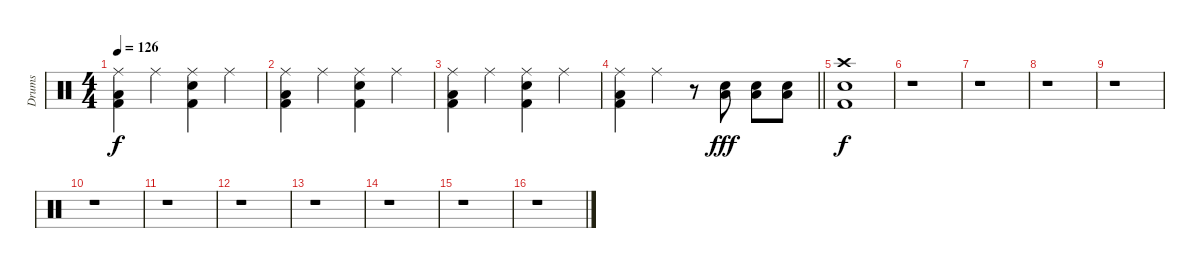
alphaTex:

\track ("Drums" "Drums") {instrument percussion bank 127}
\staff {score}
\articulation defaults
\ts (4 4)
\tempo 126
\clef neutral
\ks c
("Ride (middle)" "Kick (hit) 2" "Low Floor Tom (hit)").4{dy f} "Ride (middle)".4 ("Ride (middle)" "Kick (hit) 2" "Electric Snare (hit)").4 "Ride (middle)".4 |
("Ride (middle)" "Kick (hit) 2" "Low Floor Tom (hit)").4 "Ride (middle)".4 ("Ride (middle)" "Kick (hit) 2" "Electric Snare (hit)").4 "Ride (middle)".4 |
("Ride (middle)" "Kick (hit) 2" "Low Floor Tom (hit)").4 "Ride (middle)".4 ("Ride (middle)" "Kick (hit) 2" "Electric Snare (hit)").4 "Ride (middle)".4 |
\barLineRight lightlight
("Ride (middle)" "Kick (hit) 2" "Low Floor Tom (hit)").4 "Ride (middle)".4 r.8 ("Electric Snare (hit)" "Low Floor Tom (hit)").8{dy fff} ("Electric Snare (hit)" "Low Floor Tom (hit)").8 ("Electric Snare (hit)" "Low Floor Tom (hit)").8 |
("Crash high (hit)" "Kick (hit) 2" "Electric Snare (hit)").1{dy f} |
r.1 |
r.1 |
r.1 |
r.1 |
r.1 |
r.1 |
r.1 |
r.1 |
r.1 |
r.1 |
r.1
